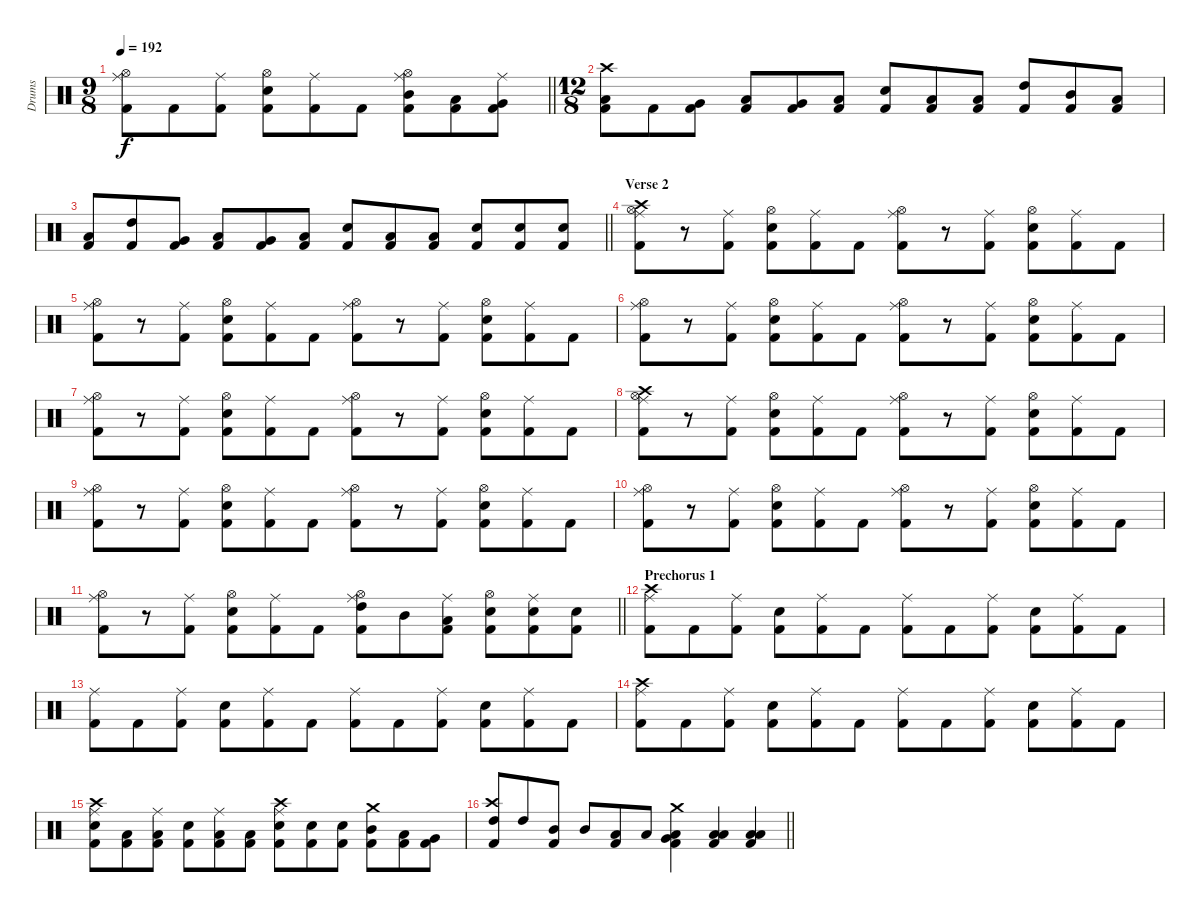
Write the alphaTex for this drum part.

\track ("Drums" "Drums") {instrument percussion}
\staff {score}
\articulation defaults
\ts (9 8)
\tempo 192
\clef neutral
\barLineRight lightlight
\ks c
("Ride (middle)" "Hi-Hat (open)" "Kick (hit) 2").8{dy f} "Kick (hit) 2".8 ("Ride (middle)" "Kick (hit) 2").8 ("Hi-Hat (open)" "Snare (hit) 2" "Kick (hit) 2").8 ("Ride (middle)" "Kick (hit) 2").8 "Kick (hit) 2".8 ("Ride (middle)" "Hi-Hat (open)" "Mid Tom (hit)" "Kick (hit) 2").8 ("Low Tom (hit)" "Kick (hit) 2").8 ("Ride (middle)" "Very Low Tom (hit)" "Kick (hit) 2").8 |
\ts (12 8)
("Crash high (hit)" "Low Tom (hit)" "Kick (hit) 2").8 "Kick (hit) 2".8 ("Very Low Tom (hit)" "Kick (hit) 2").8 ("Low Tom (hit)" "Kick (hit) 2").8 ("Very Low Tom (hit)" "Kick (hit) 2").8 ("Low Floor Tom (hit)" "Kick (hit) 2").8 ("Snare (hit) 2" "Kick (hit) 2").8 ("Low Floor Tom (hit)" "Kick (hit) 2").8 ("Low Floor Tom (hit)" "Kick (hit) 2").8 ("High Tom (hit)" "Kick (hit) 2").8 ("Mid Tom (hit)" "Kick (hit) 2").8 ("Low Tom (hit)" "Kick (hit) 2").8 |
\barLineRight lightlight
("Low Tom (hit)" "Kick (hit) 2").8 ("High Tom (hit)" "Kick (hit) 2").8 ("Very Low Tom (hit)" "Kick (hit) 2").8 ("Low Tom (hit)" "Kick (hit) 2").8 ("Very Low Tom (hit)" "Kick (hit) 2").8 ("Low Floor Tom (hit)" "Kick (hit) 2").8 ("Snare (hit) 2" "Kick (hit) 2").8 ("Low Floor Tom (hit)" "Kick (hit) 2").8 ("Low Floor Tom (hit)" "Kick (hit) 2").8 ("Snare (hit) 2" "Kick (hit) 2").8 ("Snare (hit) 2" "Kick (hit) 2").8 ("Snare (hit) 2" "Kick (hit) 2").8 |
\section ("" "Verse 2")
("Crash high (hit)" "Ride (middle)" "Hi-Hat (open)" "Kick (hit) 2").8 r.8 ("Ride (middle)" "Kick (hit) 2").8 ("Hi-Hat (open)" "Snare (hit) 2" "Kick (hit) 2").8 ("Ride (middle)" "Kick (hit) 2").8 "Kick (hit) 2".8 ("Ride (middle)" "Hi-Hat (open)" "Kick (hit) 2").8 r.8 ("Ride (middle)" "Kick (hit) 2").8 ("Hi-Hat (open)" "Snare (hit) 2" "Kick (hit) 2").8 ("Ride (middle)" "Kick (hit) 2").8 "Kick (hit) 2".8 |
("Ride (middle)" "Hi-Hat (open)" "Kick (hit) 2").8 r.8 ("Ride (middle)" "Kick (hit) 2").8 ("Hi-Hat (open)" "Snare (hit) 2" "Kick (hit) 2").8 ("Ride (middle)" "Kick (hit) 2").8 "Kick (hit) 2".8 ("Ride (middle)" "Hi-Hat (open)" "Kick (hit) 2").8 r.8 ("Ride (middle)" "Kick (hit) 2").8 ("Hi-Hat (open)" "Snare (hit) 2" "Kick (hit) 2").8 ("Ride (middle)" "Kick (hit) 2").8 "Kick (hit) 2".8 |
("Ride (middle)" "Hi-Hat (open)" "Kick (hit) 2").8 r.8 ("Ride (middle)" "Kick (hit) 2").8 ("Hi-Hat (open)" "Snare (hit) 2" "Kick (hit) 2").8 ("Ride (middle)" "Kick (hit) 2").8 "Kick (hit) 2".8 ("Ride (middle)" "Hi-Hat (open)" "Kick (hit) 2").8 r.8 ("Ride (middle)" "Kick (hit) 2").8 ("Hi-Hat (open)" "Snare (hit) 2" "Kick (hit) 2").8 ("Ride (middle)" "Kick (hit) 2").8 "Kick (hit) 2".8 |
("Ride (middle)" "Hi-Hat (open)" "Kick (hit) 2").8 r.8 ("Ride (middle)" "Kick (hit) 2").8 ("Hi-Hat (open)" "Snare (hit) 2" "Kick (hit) 2").8 ("Ride (middle)" "Kick (hit) 2").8 "Kick (hit) 2".8 ("Ride (middle)" "Hi-Hat (open)" "Kick (hit) 2").8 r.8 ("Ride (middle)" "Kick (hit) 2").8 ("Hi-Hat (open)" "Snare (hit) 2" "Kick (hit) 2").8 ("Ride (middle)" "Kick (hit) 2").8 "Kick (hit) 2".8 |
("Crash high (hit)" "Ride (middle)" "Hi-Hat (open)" "Kick (hit) 2").8 r.8 ("Ride (middle)" "Kick (hit) 2").8 ("Hi-Hat (open)" "Snare (hit) 2" "Kick (hit) 2").8 ("Ride (middle)" "Kick (hit) 2").8 "Kick (hit) 2".8 ("Ride (middle)" "Hi-Hat (open)" "Kick (hit) 2").8 r.8 ("Ride (middle)" "Kick (hit) 2").8 ("Hi-Hat (open)" "Snare (hit) 2" "Kick (hit) 2").8 ("Ride (middle)" "Kick (hit) 2").8 "Kick (hit) 2".8 |
("Ride (middle)" "Hi-Hat (open)" "Kick (hit) 2").8 r.8 ("Ride (middle)" "Kick (hit) 2").8 ("Hi-Hat (open)" "Snare (hit) 2" "Kick (hit) 2").8 ("Ride (middle)" "Kick (hit) 2").8 "Kick (hit) 2".8 ("Ride (middle)" "Hi-Hat (open)" "Kick (hit) 2").8 r.8 ("Ride (middle)" "Kick (hit) 2").8 ("Hi-Hat (open)" "Snare (hit) 2" "Kick (hit) 2").8 ("Ride (middle)" "Kick (hit) 2").8 "Kick (hit) 2".8 |
("Ride (middle)" "Hi-Hat (open)" "Kick (hit) 2").8 r.8 ("Ride (middle)" "Kick (hit) 2").8 ("Hi-Hat (open)" "Snare (hit) 2" "Kick (hit) 2").8 ("Ride (middle)" "Kick (hit) 2").8 "Kick (hit) 2".8 ("Ride (middle)" "Hi-Hat (open)" "Kick (hit) 2").8 r.8 ("Ride (middle)" "Kick (hit) 2").8 ("Hi-Hat (open)" "Snare (hit) 2" "Kick (hit) 2").8 ("Ride (middle)" "Kick (hit) 2").8 "Kick (hit) 2".8 |
\barLineRight lightlight
("Ride (middle)" "Hi-Hat (open)" "Kick (hit) 2").8 r.8 ("Ride (middle)" "Kick (hit) 2").8 ("Hi-Hat (open)" "Snare (hit) 2" "Kick (hit) 2").8 ("Ride (middle)" "Kick (hit) 2").8 "Kick (hit) 2".8 ("Ride (middle)" "Hi-Hat (open)" "High Tom (hit)" "Kick (hit) 2").8 "Mid Tom (hit)".8 ("Ride (middle)" "Low Tom (hit)" "Kick (hit) 2").8 ("Hi-Hat (open)" "Snare (hit) 2" "Kick (hit) 2").8 ("Ride (middle)" "Snare (hit) 2" "Kick (hit) 2").8 ("Snare (hit) 2" "Kick (hit) 2").8 |
\section ("" "Prechorus 1")
("Crash high (hit)" "Ride (middle)" "Kick (hit) 2").8 "Kick (hit) 2".8 ("Ride (middle)" "Kick (hit) 2").8 ("Snare (hit) 2" "Kick (hit) 2").8 ("Ride (middle)" "Kick (hit) 2").8 "Kick (hit) 2".8 ("Ride (middle)" "Kick (hit) 2").8 "Kick (hit) 2".8 ("Ride (middle)" "Kick (hit) 2").8 ("Snare (hit) 2" "Kick (hit) 2").8 ("Ride (middle)" "Kick (hit) 2").8 "Kick (hit) 2".8 |
("Ride (middle)" "Kick (hit) 2").8 "Kick (hit) 2".8 ("Ride (middle)" "Kick (hit) 2").8 ("Snare (hit) 2" "Kick (hit) 2").8 ("Ride (middle)" "Kick (hit) 2").8 "Kick (hit) 2".8 ("Ride (middle)" "Kick (hit) 2").8 "Kick (hit) 2".8 ("Ride (middle)" "Kick (hit) 2").8 ("Snare (hit) 2" "Kick (hit) 2").8 ("Ride (middle)" "Kick (hit) 2").8 "Kick (hit) 2".8 |
("Crash high (hit)" "Ride (middle)" "Kick (hit) 2").8 "Kick (hit) 2".8 ("Ride (middle)" "Kick (hit) 2").8 ("Snare (hit) 2" "Kick (hit) 2").8 ("Ride (middle)" "Kick (hit) 2").8 "Kick (hit) 2".8 ("Ride (middle)" "Kick (hit) 2").8 "Kick (hit) 2".8 ("Ride (middle)" "Kick (hit) 2").8 ("Snare (hit) 2" "Kick (hit) 2").8 ("Ride (middle)" "Kick (hit) 2").8 "Kick (hit) 2".8 |
("Crash high (hit)" "Ride (middle)" "Snare (hit) 2" "Kick (hit) 2").8 ("Low Floor Tom (hit)" "Kick (hit) 2").8 ("Ride (middle)" "Low Floor Tom (hit)" "Kick (hit) 2").8 ("Snare (hit) 2" "Kick (hit) 2").8 ("Ride (middle)" "Low Tom (hit)" "Kick (hit) 2").8 ("Low Tom (hit)" "Kick (hit) 2").8 ("Crash high (hit)" "Ride (middle)" "Snare (hit) 2" "Kick (hit) 2").8 ("Snare (hit) 2" "Kick (hit) 2").8 ("Snare (hit) 2" "Kick (hit) 2").8 ("Crash medium (hit)" "Mid Tom (hit)" "Kick (hit) 2").8 ("Low Tom (hit)" "Kick (hit) 2").8 ("Very Low Tom (hit)" "Kick (hit) 2").8 |
\barLineRight lightlight
("Crash high (hit)" "High Tom (hit)" "Kick (hit) 2").8 "High Tom (hit)".8 ("Mid Tom (hit)" "Kick (hit) 2").8 "Mid Tom (hit)".8 ("Low Tom (hit)" "Kick (hit) 2").8 "Low Tom (hit)".8 ("Crash medium (hit)" "Very Low Tom (hit)" "Low Floor Tom (hit)" "Kick (hit) 2").4 ("Low Tom (hit)" "Low Floor Tom (hit)" "Kick (hit) 2").4 ("Low Tom (hit)" "Low Floor Tom (hit)" "Kick (hit) 2").4
